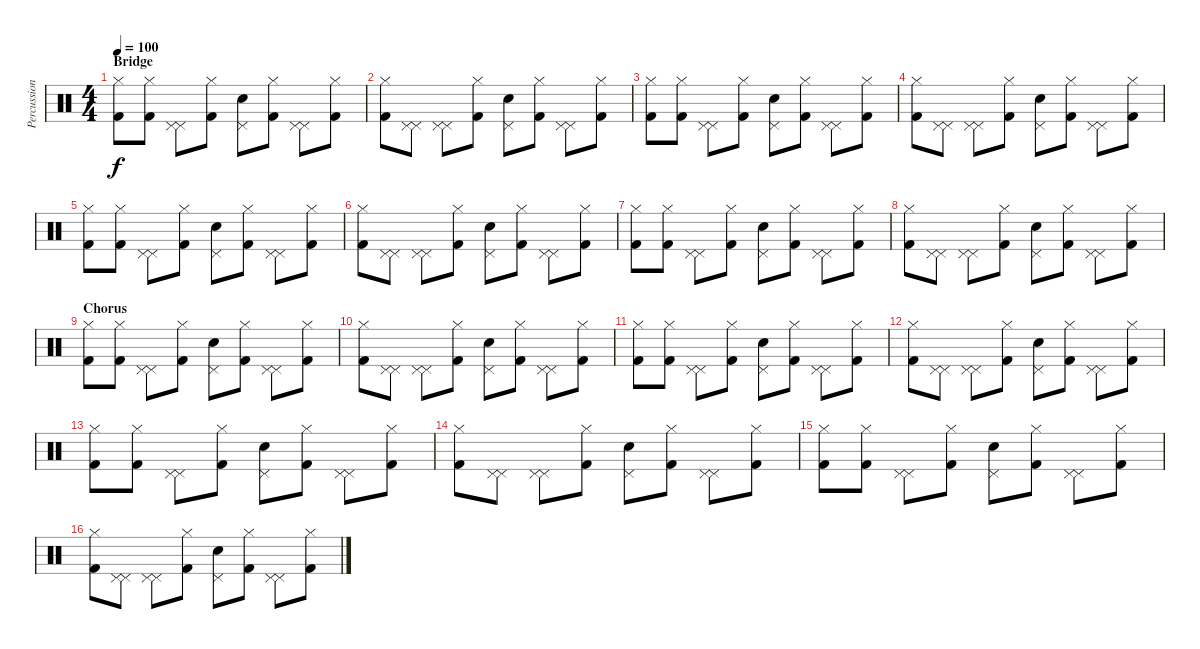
\track ("Percussion" "Percussion") {instrument percussion}
\staff {score}
\articulation defaults
\ts (4 4)
\section ("" "Bridge")
\tempo 100
\clef neutral
\ks c
("Hi-Hat (closed)" "Kick (hit) 2").8{dy f volume 7} ("Hi-Hat (closed)" "Kick (hit) 2").8 ("Pedal Hi-Hat (hit)" "Pedal Hi-Hat (hit)").8 ("Hi-Hat (closed)" "Kick (hit) 2").8 ("Snare (hit) 2" "Pedal Hi-Hat (hit)").8 ("Hi-Hat (closed)" "Kick (hit) 2").8 ("Pedal Hi-Hat (hit)" "Pedal Hi-Hat (hit)").8 ("Hi-Hat (closed)" "Kick (hit) 2").8 |
("Hi-Hat (closed)" "Kick (hit) 2").8 ("Pedal Hi-Hat (hit)" "Pedal Hi-Hat (hit)").8 ("Pedal Hi-Hat (hit)" "Pedal Hi-Hat (hit)").8 ("Hi-Hat (closed)" "Kick (hit) 2").8 ("Snare (hit) 2" "Pedal Hi-Hat (hit)").8 ("Hi-Hat (closed)" "Kick (hit) 2").8 ("Pedal Hi-Hat (hit)" "Pedal Hi-Hat (hit)").8 ("Hi-Hat (closed)" "Kick (hit) 2").8 |
("Hi-Hat (closed)" "Kick (hit) 2").8 ("Hi-Hat (closed)" "Kick (hit) 2").8 ("Pedal Hi-Hat (hit)" "Pedal Hi-Hat (hit)").8 ("Hi-Hat (closed)" "Kick (hit) 2").8 ("Snare (hit) 2" "Pedal Hi-Hat (hit)").8 ("Hi-Hat (closed)" "Kick (hit) 2").8 ("Pedal Hi-Hat (hit)" "Pedal Hi-Hat (hit)").8 ("Hi-Hat (closed)" "Kick (hit) 2").8 |
("Hi-Hat (closed)" "Kick (hit) 2").8 ("Pedal Hi-Hat (hit)" "Pedal Hi-Hat (hit)").8 ("Pedal Hi-Hat (hit)" "Pedal Hi-Hat (hit)").8 ("Hi-Hat (closed)" "Kick (hit) 2").8 ("Snare (hit) 2" "Pedal Hi-Hat (hit)").8 ("Hi-Hat (closed)" "Kick (hit) 2").8 ("Pedal Hi-Hat (hit)" "Pedal Hi-Hat (hit)").8 ("Hi-Hat (closed)" "Kick (hit) 2").8 |
("Hi-Hat (closed)" "Kick (hit) 2").8 ("Hi-Hat (closed)" "Kick (hit) 2").8 ("Pedal Hi-Hat (hit)" "Pedal Hi-Hat (hit)").8 ("Hi-Hat (closed)" "Kick (hit) 2").8 ("Snare (hit) 2" "Pedal Hi-Hat (hit)").8 ("Hi-Hat (closed)" "Kick (hit) 2").8 ("Pedal Hi-Hat (hit)" "Pedal Hi-Hat (hit)").8 ("Hi-Hat (closed)" "Kick (hit) 2").8 |
("Hi-Hat (closed)" "Kick (hit) 2").8 ("Pedal Hi-Hat (hit)" "Pedal Hi-Hat (hit)").8 ("Pedal Hi-Hat (hit)" "Pedal Hi-Hat (hit)").8 ("Hi-Hat (closed)" "Kick (hit) 2").8 ("Snare (hit) 2" "Pedal Hi-Hat (hit)").8 ("Hi-Hat (closed)" "Kick (hit) 2").8 ("Pedal Hi-Hat (hit)" "Pedal Hi-Hat (hit)").8 ("Hi-Hat (closed)" "Kick (hit) 2").8 |
("Hi-Hat (closed)" "Kick (hit) 2").8 ("Hi-Hat (closed)" "Kick (hit) 2").8 ("Pedal Hi-Hat (hit)" "Pedal Hi-Hat (hit)").8 ("Hi-Hat (closed)" "Kick (hit) 2").8 ("Snare (hit) 2" "Pedal Hi-Hat (hit)").8 ("Hi-Hat (closed)" "Kick (hit) 2").8 ("Pedal Hi-Hat (hit)" "Pedal Hi-Hat (hit)").8 ("Hi-Hat (closed)" "Kick (hit) 2").8 |
("Hi-Hat (closed)" "Kick (hit) 2").8 ("Pedal Hi-Hat (hit)" "Pedal Hi-Hat (hit)").8 ("Pedal Hi-Hat (hit)" "Pedal Hi-Hat (hit)").8 ("Hi-Hat (closed)" "Kick (hit) 2").8 ("Snare (hit) 2" "Pedal Hi-Hat (hit)").8 ("Hi-Hat (closed)" "Kick (hit) 2").8 ("Pedal Hi-Hat (hit)" "Pedal Hi-Hat (hit)").8 ("Hi-Hat (closed)" "Kick (hit) 2").8 |
\section ("" "Chorus")
("Hi-Hat (closed)" "Kick (hit) 2").8{volume 16} ("Hi-Hat (closed)" "Kick (hit) 2").8 ("Pedal Hi-Hat (hit)" "Pedal Hi-Hat (hit)").8 ("Hi-Hat (closed)" "Kick (hit) 2").8 ("Snare (hit) 2" "Pedal Hi-Hat (hit)").8 ("Hi-Hat (closed)" "Kick (hit) 2").8 ("Pedal Hi-Hat (hit)" "Pedal Hi-Hat (hit)").8 ("Hi-Hat (closed)" "Kick (hit) 2").8 |
("Hi-Hat (closed)" "Kick (hit) 2").8 ("Pedal Hi-Hat (hit)" "Pedal Hi-Hat (hit)").8 ("Pedal Hi-Hat (hit)" "Pedal Hi-Hat (hit)").8 ("Hi-Hat (closed)" "Kick (hit) 2").8 ("Snare (hit) 2" "Pedal Hi-Hat (hit)").8 ("Hi-Hat (closed)" "Kick (hit) 2").8 ("Pedal Hi-Hat (hit)" "Pedal Hi-Hat (hit)").8 ("Hi-Hat (closed)" "Kick (hit) 2").8 |
("Hi-Hat (closed)" "Kick (hit) 2").8 ("Hi-Hat (closed)" "Kick (hit) 2").8 ("Pedal Hi-Hat (hit)" "Pedal Hi-Hat (hit)").8 ("Hi-Hat (closed)" "Kick (hit) 2").8 ("Snare (hit) 2" "Pedal Hi-Hat (hit)").8 ("Hi-Hat (closed)" "Kick (hit) 2").8 ("Pedal Hi-Hat (hit)" "Pedal Hi-Hat (hit)").8 ("Hi-Hat (closed)" "Kick (hit) 2").8 |
("Hi-Hat (closed)" "Kick (hit) 2").8 ("Pedal Hi-Hat (hit)" "Pedal Hi-Hat (hit)").8 ("Pedal Hi-Hat (hit)" "Pedal Hi-Hat (hit)").8 ("Hi-Hat (closed)" "Kick (hit) 2").8 ("Snare (hit) 2" "Pedal Hi-Hat (hit)").8 ("Hi-Hat (closed)" "Kick (hit) 2").8 ("Pedal Hi-Hat (hit)" "Pedal Hi-Hat (hit)").8 ("Hi-Hat (closed)" "Kick (hit) 2").8 |
("Hi-Hat (closed)" "Kick (hit) 2").8 ("Hi-Hat (closed)" "Kick (hit) 2").8 ("Pedal Hi-Hat (hit)" "Pedal Hi-Hat (hit)").8 ("Hi-Hat (closed)" "Kick (hit) 2").8 ("Snare (hit) 2" "Pedal Hi-Hat (hit)").8 ("Hi-Hat (closed)" "Kick (hit) 2").8 ("Pedal Hi-Hat (hit)" "Pedal Hi-Hat (hit)").8 ("Hi-Hat (closed)" "Kick (hit) 2").8 |
("Hi-Hat (closed)" "Kick (hit) 2").8 ("Pedal Hi-Hat (hit)" "Pedal Hi-Hat (hit)").8 ("Pedal Hi-Hat (hit)" "Pedal Hi-Hat (hit)").8 ("Hi-Hat (closed)" "Kick (hit) 2").8 ("Snare (hit) 2" "Pedal Hi-Hat (hit)").8 ("Hi-Hat (closed)" "Kick (hit) 2").8 ("Pedal Hi-Hat (hit)" "Pedal Hi-Hat (hit)").8 ("Hi-Hat (closed)" "Kick (hit) 2").8 |
("Hi-Hat (closed)" "Kick (hit) 2").8 ("Hi-Hat (closed)" "Kick (hit) 2").8 ("Pedal Hi-Hat (hit)" "Pedal Hi-Hat (hit)").8 ("Hi-Hat (closed)" "Kick (hit) 2").8 ("Snare (hit) 2" "Pedal Hi-Hat (hit)").8 ("Hi-Hat (closed)" "Kick (hit) 2").8 ("Pedal Hi-Hat (hit)" "Pedal Hi-Hat (hit)").8 ("Hi-Hat (closed)" "Kick (hit) 2").8 |
("Hi-Hat (closed)" "Kick (hit) 2").8 ("Pedal Hi-Hat (hit)" "Pedal Hi-Hat (hit)").8 ("Pedal Hi-Hat (hit)" "Pedal Hi-Hat (hit)").8 ("Hi-Hat (closed)" "Kick (hit) 2").8 ("Snare (hit) 2" "Pedal Hi-Hat (hit)").8 ("Hi-Hat (closed)" "Kick (hit) 2").8 ("Pedal Hi-Hat (hit)" "Pedal Hi-Hat (hit)").8 ("Hi-Hat (closed)" "Kick (hit) 2").8
